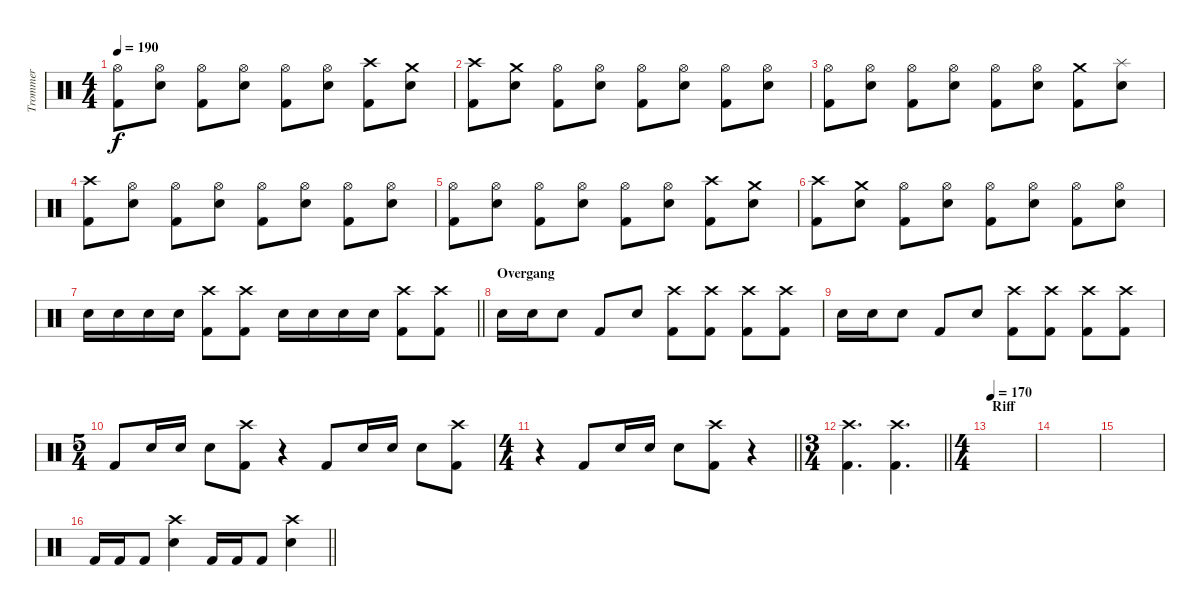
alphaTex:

\track ("Trommer" "Trommer") {instrument percussion}
\staff {score}
\articulation defaults
\ts (4 4)
\tempo 190
\clef neutral
\ks c
("Hi-Hat (open)" "Kick (hit) 2").8{dy f} ("Hi-Hat (open)" "Snare (hit) 2").8 ("Hi-Hat (open)" "Kick (hit) 2").8 ("Hi-Hat (open)" "Snare (hit) 2").8 ("Hi-Hat (open)" "Kick (hit) 2").8 ("Hi-Hat (open)" "Snare (hit) 2").8 ("Crash high (hit)" "Kick (hit) 2").8 ("Crash medium (hit)" "Snare (hit) 2").8 |
("Crash high (hit)" "Kick (hit) 2").8 ("Crash medium (hit)" "Snare (hit) 2").8 ("Hi-Hat (open)" "Kick (hit) 2").8 ("Hi-Hat (open)" "Snare (hit) 2").8 ("Hi-Hat (open)" "Kick (hit) 2").8 ("Hi-Hat (open)" "Snare (hit) 2").8 ("Hi-Hat (open)" "Kick (hit) 2").8 ("Hi-Hat (open)" "Snare (hit) 2").8 |
("Hi-Hat (open)" "Kick (hit) 2").8 ("Hi-Hat (open)" "Snare (hit) 2").8 ("Hi-Hat (open)" "Kick (hit) 2").8 ("Hi-Hat (open)" "Snare (hit) 2").8 ("Hi-Hat (open)" "Kick (hit) 2").8 ("Hi-Hat (open)" "Snare (hit) 2").8 ("Crash medium (hit)" "Kick (hit) 2").8 ("Splash (hit)" "Snare (hit) 2").8 |
("Crash high (hit)" "Kick (hit) 2").8 ("Hi-Hat (open)" "Snare (hit) 2").8 ("Hi-Hat (open)" "Kick (hit) 2").8 ("Hi-Hat (open)" "Snare (hit) 2").8 ("Hi-Hat (open)" "Kick (hit) 2").8 ("Hi-Hat (open)" "Snare (hit) 2").8 ("Hi-Hat (open)" "Kick (hit) 2").8 ("Hi-Hat (open)" "Snare (hit) 2").8 |
("Hi-Hat (open)" "Kick (hit) 2").8 ("Hi-Hat (open)" "Snare (hit) 2").8 ("Hi-Hat (open)" "Kick (hit) 2").8 ("Hi-Hat (open)" "Snare (hit) 2").8 ("Hi-Hat (open)" "Kick (hit) 2").8 ("Hi-Hat (open)" "Snare (hit) 2").8 ("Crash high (hit)" "Kick (hit) 2").8 ("Crash medium (hit)" "Snare (hit) 2").8 |
("Crash high (hit)" "Kick (hit) 2").8 ("Crash medium (hit)" "Snare (hit) 2").8 ("Hi-Hat (open)" "Kick (hit) 2").8 ("Hi-Hat (open)" "Snare (hit) 2").8 ("Hi-Hat (open)" "Kick (hit) 2").8 ("Hi-Hat (open)" "Snare (hit) 2").8 ("Hi-Hat (open)" "Kick (hit) 2").8 ("Hi-Hat (open)" "Snare (hit) 2").8 |
\barLineRight lightlight "Snare (hit) 2".16 "Snare (hit) 2".16 "Snare (hit) 2".16 "Snare (hit) 2".16
("Crash high (hit)" "Kick (hit) 2").8 ("Crash high (hit)" "Kick (hit) 2").8 "Snare (hit) 2".16 "Snare (hit) 2".16 "Snare (hit) 2".16 "Snare (hit) 2".16 ("Crash high (hit)" "Kick (hit) 2").8 ("Crash high (hit)" "Kick (hit) 2").8 |
\section ("" "Overgang")
"Snare (hit) 2".16 "Snare (hit) 2".16 "Snare (hit) 2".8 "Kick (hit) 2".8 "Snare (hit) 2".8 ("Crash high (hit)" "Kick (hit) 2").8 ("Crash high (hit)" "Kick (hit) 2").8 ("Crash high (hit)" "Kick (hit) 2").8 ("Crash high (hit)" "Kick (hit) 2").8 |
"Snare (hit) 2".16 "Snare (hit) 2".16 "Snare (hit) 2".8 "Kick (hit) 2".8 "Snare (hit) 2".8 ("Crash high (hit)" "Kick (hit) 2").8 ("Crash high (hit)" "Kick (hit) 2").8 ("Crash high (hit)" "Kick (hit) 2").8 ("Crash high (hit)" "Kick (hit) 2").8 |
\ts (5 4)
"Kick (hit) 2".8 "Snare (hit) 2".16 "Snare (hit) 2".16 "Snare (hit) 2".8 ("Crash high (hit)" "Kick (hit) 2").8 r.4 "Kick (hit) 2".8 "Snare (hit) 2".16 "Snare (hit) 2".16 "Snare (hit) 2".8 ("Crash high (hit)" "Kick (hit) 2").8 |
\ts (4 4)
\barLineRight lightlight
r.4 "Kick (hit) 2".8 "Snare (hit) 2".16 "Snare (hit) 2".16 "Snare (hit) 2".8 ("Crash high (hit)" "Kick (hit) 2").8 r.4 |
\ts (3 4)
\barLineRight lightlight
("Crash high (hit)" "Kick (hit) 2").4{d} ("Crash high (hit)" "Kick (hit) 2").4{d} |
\ts (4 4)
\section ("" "Riff")
\tempo 170
|
|
|
\barLineRight lightlight "Kick (hit) 2".16 "Kick (hit) 2".16 "Kick (hit) 2".8
("Crash high (hit)" "Snare (hit) 2").4 "Kick (hit) 2".16 "Kick (hit) 2".16 "Kick (hit) 2".8 ("Crash high (hit)" "Snare (hit) 2").4
